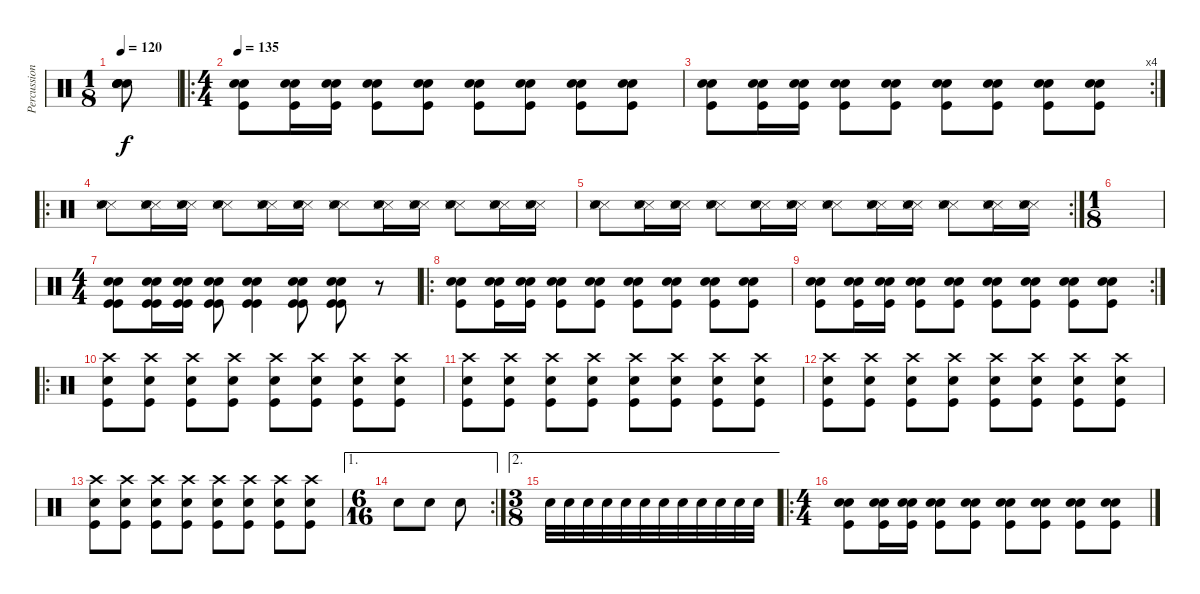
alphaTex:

\track ("Percussion" "Percussion") {instrument percussion}
\staff {score}
\articulation defaults
\ts (1 8)
\tempo 120
\clef neutral
\ks c
("Snare (hit) 2" "Snare (hit) 2" "Snare (hit) 2" "Snare (hit) 2").8{dy f} |
\ro
\ts (4 4)
\tempo 135
("Snare (hit) 2" "Kick (hit)" "Hand Clap (hit)").8 ("Snare (hit) 2" "Kick (hit)" "Hand Clap (hit)").16 ("Snare (hit) 2" "Kick (hit)" "Hand Clap (hit)").16 ("Snare (hit) 2" "Kick (hit)" "Hand Clap (hit)").8 ("Snare (hit) 2" "Kick (hit)" "Hand Clap (hit)").8 ("Snare (hit) 2" "Kick (hit)" "Hand Clap (hit)").8 ("Snare (hit) 2" "Kick (hit)" "Hand Clap (hit)").8 ("Snare (hit) 2" "Kick (hit)" "Hand Clap (hit)").8 ("Snare (hit) 2" "Kick (hit)" "Hand Clap (hit)").8 |
\rc 4
("Snare (hit) 2" "Kick (hit)" "Hand Clap (hit)").8 ("Snare (hit) 2" "Kick (hit)" "Hand Clap (hit)").16 ("Snare (hit) 2" "Kick (hit)" "Hand Clap (hit)").16 ("Snare (hit) 2" "Kick (hit)" "Hand Clap (hit)").8 ("Snare (hit) 2" "Kick (hit)" "Hand Clap (hit)").8 ("Snare (hit) 2" "Kick (hit)" "Hand Clap (hit)").8 ("Snare (hit) 2" "Kick (hit)" "Hand Clap (hit)").8 ("Snare (hit) 2" "Kick (hit)" "Hand Clap (hit)").8 ("Snare (hit) 2" "Kick (hit)" "Hand Clap (hit)").8 |
\ro
("Snare (side stick) 3" "Snare (side stick) 3" "Electric Snare (hit)").8 ("Snare (side stick) 3" "Snare (side stick) 3" "Electric Snare (hit)").16 ("Snare (side stick) 3" "Snare (side stick) 3" "Electric Snare (hit)").16 ("Snare (side stick) 3" "Snare (side stick) 3" "Electric Snare (hit)").8 ("Snare (side stick) 3" "Snare (side stick) 3" "Electric Snare (hit)").16 ("Snare (side stick) 3" "Snare (side stick) 3" "Electric Snare (hit)").16 ("Snare (side stick) 3" "Snare (side stick) 3" "Electric Snare (hit)").8 ("Snare (side stick) 3" "Snare (side stick) 3" "Electric Snare (hit)").16 ("Snare (side stick) 3" "Snare (side stick) 3" "Electric Snare (hit)").16 ("Snare (side stick) 3" "Snare (side stick) 3" "Electric Snare (hit)").8 ("Snare (side stick) 3" "Snare (side stick) 3" "Electric Snare (hit)").16 ("Snare (side stick) 3" "Snare (side stick) 3" "Electric Snare (hit)").16 |
\rc 2
("Snare (side stick) 3" "Snare (side stick) 3" "Electric Snare (hit)").8 ("Snare (side stick) 3" "Snare (side stick) 3" "Electric Snare (hit)").16 ("Snare (side stick) 3" "Snare (side stick) 3" "Electric Snare (hit)").16 ("Snare (side stick) 3" "Snare (side stick) 3" "Electric Snare (hit)").8 ("Snare (side stick) 3" "Snare (side stick) 3" "Electric Snare (hit)").16 ("Snare (side stick) 3" "Snare (side stick) 3" "Electric Snare (hit)").16 ("Snare (side stick) 3" "Snare (side stick) 3" "Electric Snare (hit)").8 ("Snare (side stick) 3" "Snare (side stick) 3" "Electric Snare (hit)").16 ("Snare (side stick) 3" "Snare (side stick) 3" "Electric Snare (hit)").16 ("Snare (side stick) 3" "Snare (side stick) 3" "Electric Snare (hit)").8 ("Snare (side stick) 3" "Snare (side stick) 3" "Electric Snare (hit)").16 ("Snare (side stick) 3" "Snare (side stick) 3" "Electric Snare (hit)").16 |
\ts (1 8)
|
\ts (4 4)
("Snare (hit) 2" "Hand Clap (hit)" "Kick (hit)" "Kick (hit)").8 ("Snare (hit) 2" "Hand Clap (hit)" "Kick (hit)" "Kick (hit)").16 ("Snare (hit) 2" "Hand Clap (hit)" "Kick (hit)" "Kick (hit)").16 ("Snare (hit) 2" "Hand Clap (hit)" "Kick (hit)" "Kick (hit)").8 ("Snare (hit) 2" "Hand Clap (hit)" "Kick (hit)" "Kick (hit)").4 ("Snare (hit) 2" "Hand Clap (hit)" "Kick (hit)" "Kick (hit)").8 ("Snare (hit) 2" "Hand Clap (hit)" "Kick (hit)" "Kick (hit)").8 r.8 |
\ro
("Snare (hit) 2" "Kick (hit)" "Hand Clap (hit)").8 ("Snare (hit) 2" "Kick (hit)" "Hand Clap (hit)").16 ("Snare (hit) 2" "Kick (hit)" "Hand Clap (hit)").16 ("Snare (hit) 2" "Kick (hit)" "Hand Clap (hit)").8 ("Snare (hit) 2" "Kick (hit)" "Hand Clap (hit)").8 ("Snare (hit) 2" "Kick (hit)" "Hand Clap (hit)").8 ("Snare (hit) 2" "Kick (hit)" "Hand Clap (hit)").8 ("Snare (hit) 2" "Kick (hit)" "Hand Clap (hit)").8 ("Snare (hit) 2" "Kick (hit)" "Hand Clap (hit)").8 |
\rc 2
("Snare (hit) 2" "Kick (hit)" "Hand Clap (hit)").8 ("Snare (hit) 2" "Kick (hit)" "Hand Clap (hit)").16 ("Snare (hit) 2" "Kick (hit)" "Hand Clap (hit)").16 ("Snare (hit) 2" "Kick (hit)" "Hand Clap (hit)").8 ("Snare (hit) 2" "Kick (hit)" "Hand Clap (hit)").8 ("Snare (hit) 2" "Kick (hit)" "Hand Clap (hit)").8 ("Snare (hit) 2" "Kick (hit)" "Hand Clap (hit)").8 ("Snare (hit) 2" "Kick (hit)" "Hand Clap (hit)").8 ("Snare (hit) 2" "Kick (hit)" "Hand Clap (hit)").8 |
\ro
("Snare (hit) 2" "Crash high (hit)" "Kick (hit)").8 ("Crash high (hit)" "Snare (hit) 2" "Kick (hit)").8 ("Snare (hit) 2" "Crash high (hit)" "Kick (hit)").8 ("Crash high (hit)" "Snare (hit) 2" "Kick (hit)").8 ("Snare (hit) 2" "Crash high (hit)" "Kick (hit)").8 ("Crash high (hit)" "Snare (hit) 2" "Kick (hit)").8 ("Snare (hit) 2" "Crash high (hit)" "Kick (hit)").8 ("Crash high (hit)" "Snare (hit) 2" "Kick (hit)").8 |
("Snare (hit) 2" "Crash high (hit)" "Kick (hit)").8 ("Snare (hit) 2" "Crash high (hit)" "Kick (hit)").8 ("Snare (hit) 2" "Crash high (hit)" "Kick (hit)").8 ("Snare (hit) 2" "Crash high (hit)" "Kick (hit)").8 ("Snare (hit) 2" "Crash high (hit)" "Kick (hit)").8 ("Snare (hit) 2" "Crash high (hit)" "Kick (hit)").8 ("Snare (hit) 2" "Crash high (hit)" "Kick (hit)").8 ("Snare (hit) 2" "Crash high (hit)" "Kick (hit)").8 |
("Snare (hit) 2" "Crash high (hit)" "Kick (hit)").8 ("Snare (hit) 2" "Crash high (hit)" "Kick (hit)").8 ("Snare (hit) 2" "Crash high (hit)" "Kick (hit)").8 ("Snare (hit) 2" "Crash high (hit)" "Kick (hit)").8 ("Snare (hit) 2" "Crash high (hit)" "Kick (hit)").8 ("Snare (hit) 2" "Crash high (hit)" "Kick (hit)").8 ("Snare (hit) 2" "Crash high (hit)" "Kick (hit)").8 ("Snare (hit) 2" "Crash high (hit)" "Kick (hit)").8 |
("Snare (hit) 2" "Crash high (hit)" "Kick (hit)").8 ("Snare (hit) 2" "Crash high (hit)" "Kick (hit)").8 ("Snare (hit) 2" "Crash high (hit)" "Kick (hit)").8 ("Snare (hit) 2" "Crash high (hit)" "Kick (hit)").8 ("Snare (hit) 2" "Crash high (hit)" "Kick (hit)").8 ("Snare (hit) 2" "Crash high (hit)" "Kick (hit)").8 ("Snare (hit) 2" "Crash high (hit)" "Kick (hit)").8 ("Snare (hit) 2" "Crash high (hit)" "Kick (hit)").8 |
\ae 1
\rc 2
\ts (6 16)
"Snare (hit) 2".8 "Snare (hit) 2".8 "Snare (hit) 2".8 |
\ae 2
\ts (3 8)
"Snare (hit) 2".32 "Snare (hit) 2".32 "Snare (hit) 2".32 "Snare (hit) 2".32 "Snare (hit) 2".32 "Snare (hit) 2".32 "Snare (hit) 2".32 "Snare (hit) 2".32 "Snare (hit) 2".32 "Snare (hit) 2".32 "Snare (hit) 2".32 "Snare (hit) 2".32 |
\ro
\ts (4 4)
("Snare (hit) 2" "Kick (hit)" "Hand Clap (hit)").8 ("Snare (hit) 2" "Kick (hit)" "Hand Clap (hit)").16 ("Snare (hit) 2" "Kick (hit)" "Hand Clap (hit)").16 ("Snare (hit) 2" "Kick (hit)" "Hand Clap (hit)").8 ("Snare (hit) 2" "Kick (hit)" "Hand Clap (hit)").8 ("Snare (hit) 2" "Kick (hit)" "Hand Clap (hit)").8 ("Snare (hit) 2" "Kick (hit)" "Hand Clap (hit)").8 ("Snare (hit) 2" "Kick (hit)" "Hand Clap (hit)").8 ("Snare (hit) 2" "Kick (hit)" "Hand Clap (hit)").8
